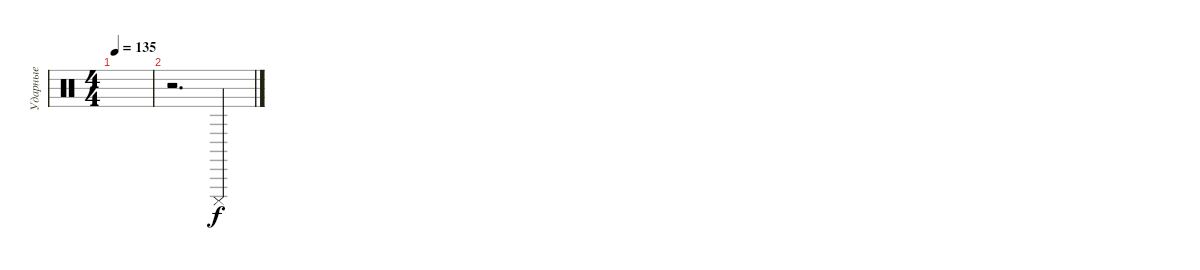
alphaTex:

\track ("Ударные" "Ударные") {instrument percussion}
\staff {score}
\articulation defaults
\ts (4 4)
\tempo 135
\clef neutral
\ks c
|
r.2{d} "Cuica (mute)".4
